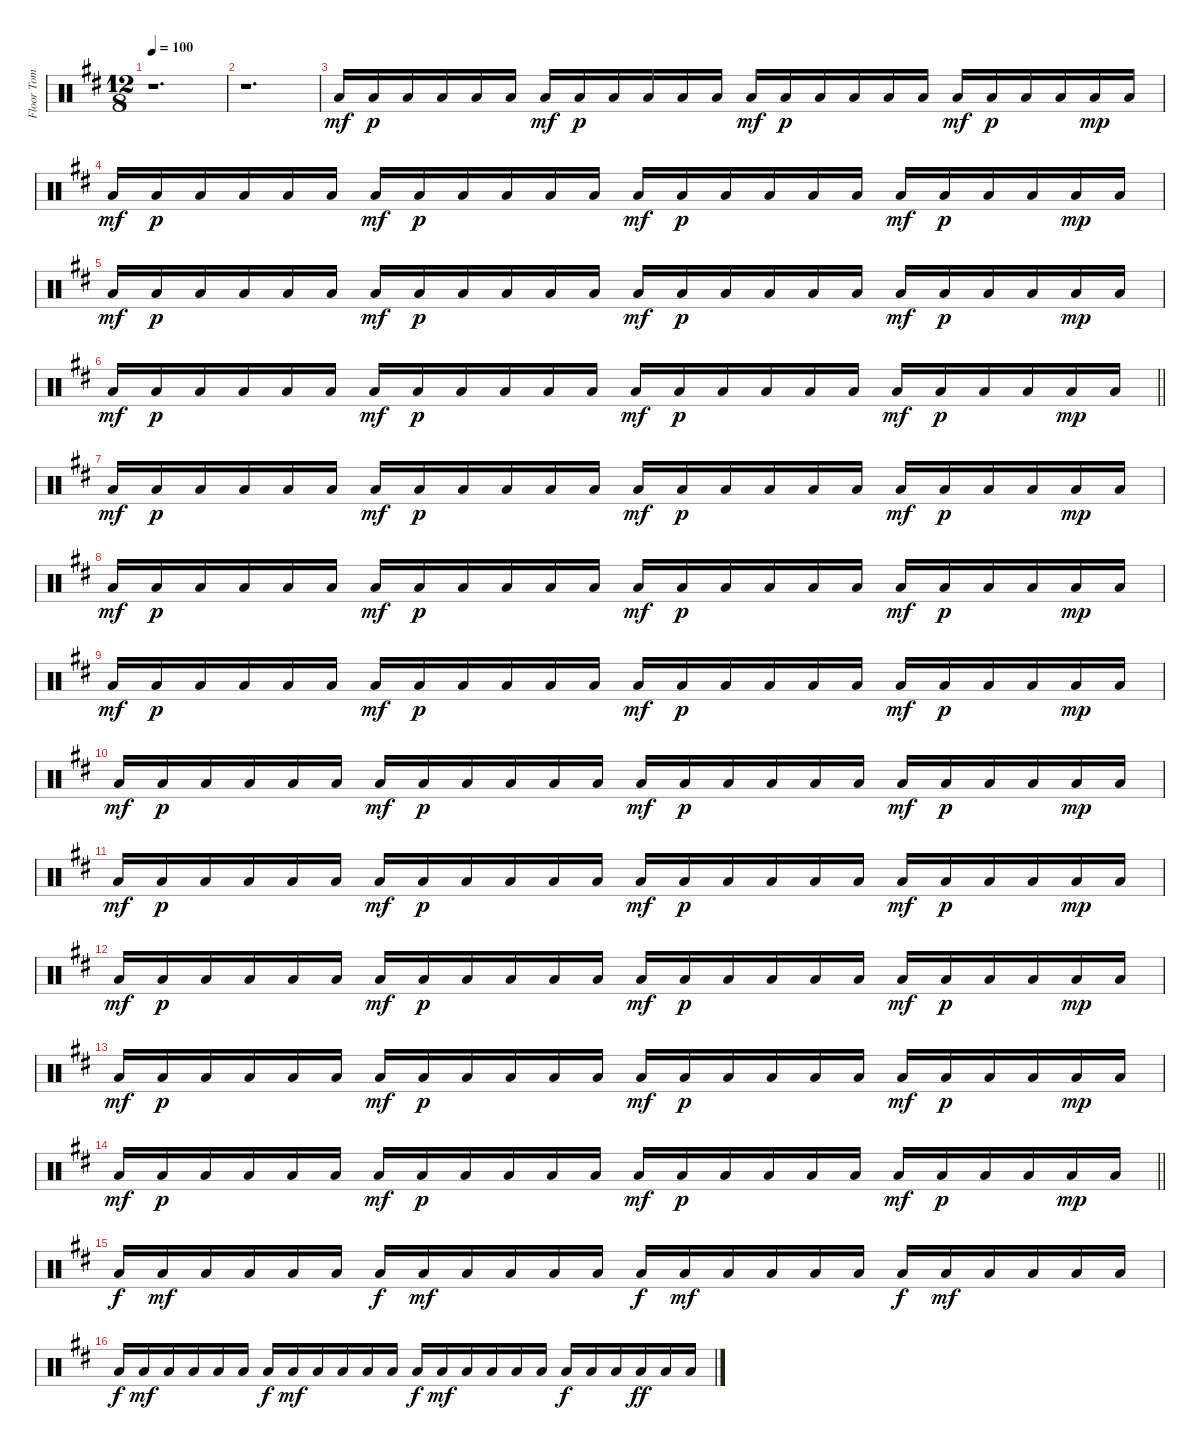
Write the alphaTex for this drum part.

\track ("Floor Tom" "Floor Tom") {instrument percussion}
\staff {score}
\articulation defaults
\ts (12 8)
\tempo 100
\clef neutral
\ks bminor
r.1{d dy mf} |
r.1{d} |
"Low Floor Tom (hit)".16 "Low Floor Tom (hit)".16{dy p} "Low Floor Tom (hit)".16 "Low Floor Tom (hit)".16 "Low Floor Tom (hit)".16 "Low Floor Tom (hit)".16 "Low Floor Tom (hit)".16{dy mf} "Low Floor Tom (hit)".16{dy p} "Low Floor Tom (hit)".16 "Low Floor Tom (hit)".16 "Low Floor Tom (hit)".16 "Low Floor Tom (hit)".16 "Low Floor Tom (hit)".16{dy mf} "Low Floor Tom (hit)".16{dy p} "Low Floor Tom (hit)".16 "Low Floor Tom (hit)".16 "Low Floor Tom (hit)".16 "Low Floor Tom (hit)".16 "Low Floor Tom (hit)".16{dy mf} "Low Floor Tom (hit)".16{dy p} "Low Floor Tom (hit)".16 "Low Floor Tom (hit)".16 "Low Floor Tom (hit)".16{dy mp} "Low Floor Tom (hit)".16 |
"Low Floor Tom (hit)".16{dy mf} "Low Floor Tom (hit)".16{dy p} "Low Floor Tom (hit)".16 "Low Floor Tom (hit)".16 "Low Floor Tom (hit)".16 "Low Floor Tom (hit)".16 "Low Floor Tom (hit)".16{dy mf} "Low Floor Tom (hit)".16{dy p} "Low Floor Tom (hit)".16 "Low Floor Tom (hit)".16 "Low Floor Tom (hit)".16 "Low Floor Tom (hit)".16 "Low Floor Tom (hit)".16{dy mf} "Low Floor Tom (hit)".16{dy p} "Low Floor Tom (hit)".16 "Low Floor Tom (hit)".16 "Low Floor Tom (hit)".16 "Low Floor Tom (hit)".16 "Low Floor Tom (hit)".16{dy mf} "Low Floor Tom (hit)".16{dy p} "Low Floor Tom (hit)".16 "Low Floor Tom (hit)".16 "Low Floor Tom (hit)".16{dy mp} "Low Floor Tom (hit)".16 |
"Low Floor Tom (hit)".16{dy mf} "Low Floor Tom (hit)".16{dy p} "Low Floor Tom (hit)".16 "Low Floor Tom (hit)".16 "Low Floor Tom (hit)".16 "Low Floor Tom (hit)".16 "Low Floor Tom (hit)".16{dy mf} "Low Floor Tom (hit)".16{dy p} "Low Floor Tom (hit)".16 "Low Floor Tom (hit)".16 "Low Floor Tom (hit)".16 "Low Floor Tom (hit)".16 "Low Floor Tom (hit)".16{dy mf} "Low Floor Tom (hit)".16{dy p} "Low Floor Tom (hit)".16 "Low Floor Tom (hit)".16 "Low Floor Tom (hit)".16 "Low Floor Tom (hit)".16 "Low Floor Tom (hit)".16{dy mf} "Low Floor Tom (hit)".16{dy p} "Low Floor Tom (hit)".16 "Low Floor Tom (hit)".16 "Low Floor Tom (hit)".16{dy mp} "Low Floor Tom (hit)".16 |
\barLineRight lightlight "Low Floor Tom (hit)".16{dy mf} "Low Floor Tom (hit)".16{dy p} "Low Floor Tom (hit)".16 "Low Floor Tom (hit)".16 "Low Floor Tom (hit)".16 "Low Floor Tom (hit)".16 "Low Floor Tom (hit)".16{dy mf} "Low Floor Tom (hit)".16{dy p} "Low Floor Tom (hit)".16 "Low Floor Tom (hit)".16 "Low Floor Tom (hit)".16 "Low Floor Tom (hit)".16 "Low Floor Tom (hit)".16{dy mf} "Low Floor Tom (hit)".16{dy p} "Low Floor Tom (hit)".16 "Low Floor Tom (hit)".16 "Low Floor Tom (hit)".16 "Low Floor Tom (hit)".16 "Low Floor Tom (hit)".16{dy mf} "Low Floor Tom (hit)".16{dy p} "Low Floor Tom (hit)".16 "Low Floor Tom (hit)".16 "Low Floor Tom (hit)".16{dy mp} "Low Floor Tom (hit)".16
|
"Low Floor Tom (hit)".16{dy mf} "Low Floor Tom (hit)".16{dy p} "Low Floor Tom (hit)".16 "Low Floor Tom (hit)".16 "Low Floor Tom (hit)".16 "Low Floor Tom (hit)".16 "Low Floor Tom (hit)".16{dy mf} "Low Floor Tom (hit)".16{dy p} "Low Floor Tom (hit)".16 "Low Floor Tom (hit)".16 "Low Floor Tom (hit)".16 "Low Floor Tom (hit)".16 "Low Floor Tom (hit)".16{dy mf} "Low Floor Tom (hit)".16{dy p} "Low Floor Tom (hit)".16 "Low Floor Tom (hit)".16 "Low Floor Tom (hit)".16 "Low Floor Tom (hit)".16 "Low Floor Tom (hit)".16{dy mf} "Low Floor Tom (hit)".16{dy p} "Low Floor Tom (hit)".16 "Low Floor Tom (hit)".16 "Low Floor Tom (hit)".16{dy mp} "Low Floor Tom (hit)".16 |
"Low Floor Tom (hit)".16{dy mf} "Low Floor Tom (hit)".16{dy p} "Low Floor Tom (hit)".16 "Low Floor Tom (hit)".16 "Low Floor Tom (hit)".16 "Low Floor Tom (hit)".16 "Low Floor Tom (hit)".16{dy mf} "Low Floor Tom (hit)".16{dy p} "Low Floor Tom (hit)".16 "Low Floor Tom (hit)".16 "Low Floor Tom (hit)".16 "Low Floor Tom (hit)".16 "Low Floor Tom (hit)".16{dy mf} "Low Floor Tom (hit)".16{dy p} "Low Floor Tom (hit)".16 "Low Floor Tom (hit)".16 "Low Floor Tom (hit)".16 "Low Floor Tom (hit)".16 "Low Floor Tom (hit)".16{dy mf} "Low Floor Tom (hit)".16{dy p} "Low Floor Tom (hit)".16 "Low Floor Tom (hit)".16 "Low Floor Tom (hit)".16{dy mp} "Low Floor Tom (hit)".16 |
"Low Floor Tom (hit)".16{dy mf} "Low Floor Tom (hit)".16{dy p} "Low Floor Tom (hit)".16 "Low Floor Tom (hit)".16 "Low Floor Tom (hit)".16 "Low Floor Tom (hit)".16 "Low Floor Tom (hit)".16{dy mf} "Low Floor Tom (hit)".16{dy p} "Low Floor Tom (hit)".16 "Low Floor Tom (hit)".16 "Low Floor Tom (hit)".16 "Low Floor Tom (hit)".16 "Low Floor Tom (hit)".16{dy mf} "Low Floor Tom (hit)".16{dy p} "Low Floor Tom (hit)".16 "Low Floor Tom (hit)".16 "Low Floor Tom (hit)".16 "Low Floor Tom (hit)".16 "Low Floor Tom (hit)".16{dy mf} "Low Floor Tom (hit)".16{dy p} "Low Floor Tom (hit)".16 "Low Floor Tom (hit)".16 "Low Floor Tom (hit)".16{dy mp} "Low Floor Tom (hit)".16 |
"Low Floor Tom (hit)".16{dy mf} "Low Floor Tom (hit)".16{dy p} "Low Floor Tom (hit)".16 "Low Floor Tom (hit)".16 "Low Floor Tom (hit)".16 "Low Floor Tom (hit)".16 "Low Floor Tom (hit)".16{dy mf} "Low Floor Tom (hit)".16{dy p} "Low Floor Tom (hit)".16 "Low Floor Tom (hit)".16 "Low Floor Tom (hit)".16 "Low Floor Tom (hit)".16 "Low Floor Tom (hit)".16{dy mf} "Low Floor Tom (hit)".16{dy p} "Low Floor Tom (hit)".16 "Low Floor Tom (hit)".16 "Low Floor Tom (hit)".16 "Low Floor Tom (hit)".16 "Low Floor Tom (hit)".16{dy mf} "Low Floor Tom (hit)".16{dy p} "Low Floor Tom (hit)".16 "Low Floor Tom (hit)".16 "Low Floor Tom (hit)".16{dy mp} "Low Floor Tom (hit)".16 |
"Low Floor Tom (hit)".16{dy mf} "Low Floor Tom (hit)".16{dy p} "Low Floor Tom (hit)".16 "Low Floor Tom (hit)".16 "Low Floor Tom (hit)".16 "Low Floor Tom (hit)".16 "Low Floor Tom (hit)".16{dy mf} "Low Floor Tom (hit)".16{dy p} "Low Floor Tom (hit)".16 "Low Floor Tom (hit)".16 "Low Floor Tom (hit)".16 "Low Floor Tom (hit)".16 "Low Floor Tom (hit)".16{dy mf} "Low Floor Tom (hit)".16{dy p} "Low Floor Tom (hit)".16 "Low Floor Tom (hit)".16 "Low Floor Tom (hit)".16 "Low Floor Tom (hit)".16 "Low Floor Tom (hit)".16{dy mf} "Low Floor Tom (hit)".16{dy p} "Low Floor Tom (hit)".16 "Low Floor Tom (hit)".16 "Low Floor Tom (hit)".16{dy mp} "Low Floor Tom (hit)".16 |
"Low Floor Tom (hit)".16{dy mf} "Low Floor Tom (hit)".16{dy p} "Low Floor Tom (hit)".16 "Low Floor Tom (hit)".16 "Low Floor Tom (hit)".16 "Low Floor Tom (hit)".16 "Low Floor Tom (hit)".16{dy mf} "Low Floor Tom (hit)".16{dy p} "Low Floor Tom (hit)".16 "Low Floor Tom (hit)".16 "Low Floor Tom (hit)".16 "Low Floor Tom (hit)".16 "Low Floor Tom (hit)".16{dy mf} "Low Floor Tom (hit)".16{dy p} "Low Floor Tom (hit)".16 "Low Floor Tom (hit)".16 "Low Floor Tom (hit)".16 "Low Floor Tom (hit)".16 "Low Floor Tom (hit)".16{dy mf} "Low Floor Tom (hit)".16{dy p} "Low Floor Tom (hit)".16 "Low Floor Tom (hit)".16 "Low Floor Tom (hit)".16{dy mp} "Low Floor Tom (hit)".16 |
"Low Floor Tom (hit)".16{dy mf} "Low Floor Tom (hit)".16{dy p} "Low Floor Tom (hit)".16 "Low Floor Tom (hit)".16 "Low Floor Tom (hit)".16 "Low Floor Tom (hit)".16 "Low Floor Tom (hit)".16{dy mf} "Low Floor Tom (hit)".16{dy p} "Low Floor Tom (hit)".16 "Low Floor Tom (hit)".16 "Low Floor Tom (hit)".16 "Low Floor Tom (hit)".16 "Low Floor Tom (hit)".16{dy mf} "Low Floor Tom (hit)".16{dy p} "Low Floor Tom (hit)".16 "Low Floor Tom (hit)".16 "Low Floor Tom (hit)".16 "Low Floor Tom (hit)".16 "Low Floor Tom (hit)".16{dy mf} "Low Floor Tom (hit)".16{dy p} "Low Floor Tom (hit)".16 "Low Floor Tom (hit)".16 "Low Floor Tom (hit)".16{dy mp} "Low Floor Tom (hit)".16 |
\barLineRight lightlight "Low Floor Tom (hit)".16{dy mf} "Low Floor Tom (hit)".16{dy p} "Low Floor Tom (hit)".16 "Low Floor Tom (hit)".16 "Low Floor Tom (hit)".16 "Low Floor Tom (hit)".16 "Low Floor Tom (hit)".16{dy mf} "Low Floor Tom (hit)".16{dy p} "Low Floor Tom (hit)".16 "Low Floor Tom (hit)".16 "Low Floor Tom (hit)".16 "Low Floor Tom (hit)".16 "Low Floor Tom (hit)".16{dy mf} "Low Floor Tom (hit)".16{dy p} "Low Floor Tom (hit)".16 "Low Floor Tom (hit)".16 "Low Floor Tom (hit)".16 "Low Floor Tom (hit)".16 "Low Floor Tom (hit)".16{dy mf} "Low Floor Tom (hit)".16{dy p} "Low Floor Tom (hit)".16 "Low Floor Tom (hit)".16 "Low Floor Tom (hit)".16{dy mp} "Low Floor Tom (hit)".16
|
"Low Floor Tom (hit)".16{dy f} "Low Floor Tom (hit)".16{dy mf} "Low Floor Tom (hit)".16 "Low Floor Tom (hit)".16 "Low Floor Tom (hit)".16 "Low Floor Tom (hit)".16 "Low Floor Tom (hit)".16{dy f} "Low Floor Tom (hit)".16{dy mf} "Low Floor Tom (hit)".16 "Low Floor Tom (hit)".16 "Low Floor Tom (hit)".16 "Low Floor Tom (hit)".16 "Low Floor Tom (hit)".16{dy f} "Low Floor Tom (hit)".16{dy mf} "Low Floor Tom (hit)".16 "Low Floor Tom (hit)".16 "Low Floor Tom (hit)".16 "Low Floor Tom (hit)".16 "Low Floor Tom (hit)".16{dy f} "Low Floor Tom (hit)".16{dy mf} "Low Floor Tom (hit)".16 "Low Floor Tom (hit)".16 "Low Floor Tom (hit)".16 "Low Floor Tom (hit)".16 |
"Low Floor Tom (hit)".16{dy f} "Low Floor Tom (hit)".16{dy mf} "Low Floor Tom (hit)".16 "Low Floor Tom (hit)".16 "Low Floor Tom (hit)".16 "Low Floor Tom (hit)".16 "Low Floor Tom (hit)".16{dy f} "Low Floor Tom (hit)".16{dy mf} "Low Floor Tom (hit)".16 "Low Floor Tom (hit)".16 "Low Floor Tom (hit)".16 "Low Floor Tom (hit)".16 "Low Floor Tom (hit)".16{dy f} "Low Floor Tom (hit)".16{dy mf} "Low Floor Tom (hit)".16 "Low Floor Tom (hit)".16 "Low Floor Tom (hit)".16 "Low Floor Tom (hit)".16 "Low Floor Tom (hit)".16{dy f} "Low Floor Tom (hit)".16 "Low Floor Tom (hit)".16 "Low Floor Tom (hit)".16{dy ff} "Low Floor Tom (hit)".16 "Low Floor Tom (hit)".16
